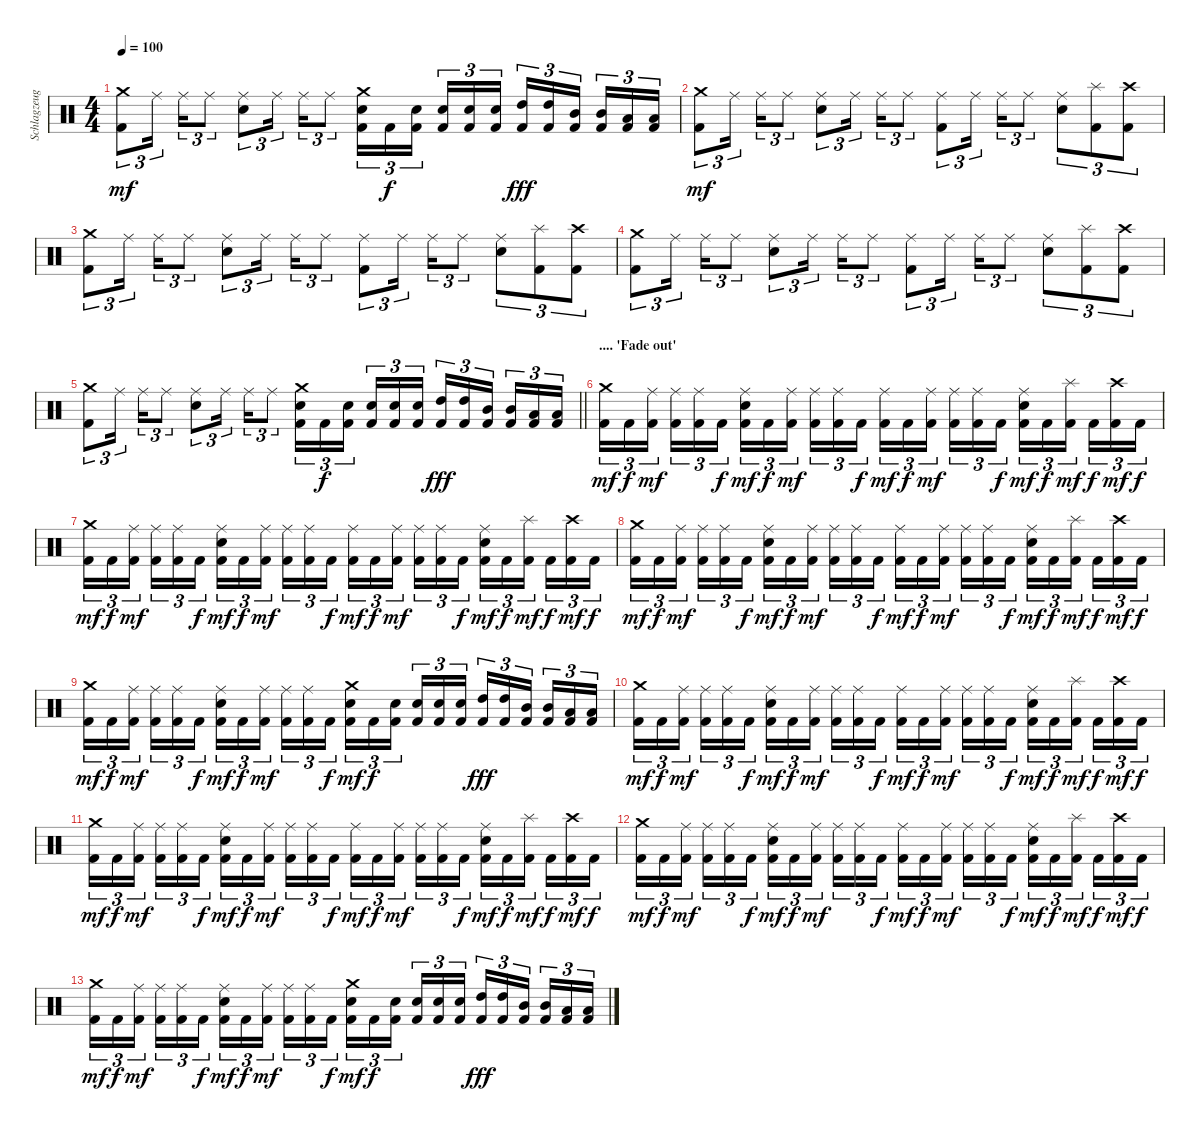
\track ("Schlagzeug" "Schlagzeug") {instrument percussion}
\staff {score}
\articulation defaults
\ts (4 4)
\tempo 100
\clef neutral
\ks c
("Crash medium (hit)" "Kick (hit) 2").8{tu (3 2) dy mf} "Ride (middle)".16{tu (3 2) beam splitsecondary} "Ride (middle)".16{tu (3 2)} "Ride (middle)".8{tu (3 2)} ("Ride (middle)" "Electric Snare (hit)").8{tu (3 2)} "Ride (middle)".16{tu (3 2) beam splitsecondary} "Ride (middle)".16{tu (3 2)} "Ride (middle)".8{tu (3 2)} ("Crash medium (hit)" "Electric Snare (hit)" "Kick (hit) 2").16{tu (3 2)} "Kick (hit) 2".16{tu (3 2) dy f} ("Electric Snare (hit)" "Kick (hit) 2").16{tu (3 2) beam splitsecondary} ("Electric Snare (hit)" "Kick (hit) 2").16{tu (3 2)} ("Electric Snare (hit)" "Kick (hit) 2").16{tu (3 2)} ("Electric Snare (hit)" "Kick (hit) 2").16{tu (3 2)} ("High Tom (hit)" "Kick (hit) 2").16{tu (3 2) dy fff} ("High Tom (hit)" "Kick (hit) 2").16{tu (3 2)} ("Mid Tom (hit)" "Kick (hit) 2").16{tu (3 2) beam splitsecondary} ("Mid Tom (hit)" "Kick (hit) 2").16{tu (3 2)} ("Low Tom (hit)" "Kick (hit) 2").16{tu (3 2)} ("Low Tom (hit)" "Kick (hit) 2").16{tu (3 2)} |
("Crash medium (hit)" "Kick (hit) 2").8{tu (3 2) dy mf} "Ride (middle)".16{tu (3 2) beam splitsecondary} "Ride (middle)".16{tu (3 2)} "Ride (middle)".8{tu (3 2)} ("Ride (middle)" "Electric Snare (hit)").8{tu (3 2)} "Ride (middle)".16{tu (3 2) beam splitsecondary} "Ride (middle)".16{tu (3 2)} "Ride (middle)".8{tu (3 2)} ("Ride (middle)" "Kick (hit) 2").8{tu (3 2)} "Ride (middle)".16{tu (3 2) beam splitsecondary} "Ride (middle)".16{tu (3 2)} "Ride (middle)".8{tu (3 2)} ("Ride (middle)" "Electric Snare (hit)").8{tu (3 2)} ("Splash (hit)" "Kick (hit) 2").8{tu (3 2)} ("Crash high (hit)" "Kick (hit) 2").8{tu (3 2)} |
("Crash medium (hit)" "Kick (hit) 2").8{tu (3 2)} "Ride (middle)".16{tu (3 2) beam splitsecondary} "Ride (middle)".16{tu (3 2)} "Ride (middle)".8{tu (3 2)} ("Ride (middle)" "Electric Snare (hit)").8{tu (3 2)} "Ride (middle)".16{tu (3 2) beam splitsecondary} "Ride (middle)".16{tu (3 2)} "Ride (middle)".8{tu (3 2)} ("Ride (middle)" "Kick (hit) 2").8{tu (3 2)} "Ride (middle)".16{tu (3 2) beam splitsecondary} "Ride (middle)".16{tu (3 2)} "Ride (middle)".8{tu (3 2)} ("Ride (middle)" "Electric Snare (hit)").8{tu (3 2)} ("Splash (hit)" "Kick (hit) 2").8{tu (3 2)} ("Crash high (hit)" "Kick (hit) 2").8{tu (3 2)} |
("Crash medium (hit)" "Kick (hit) 2").8{tu (3 2)} "Ride (middle)".16{tu (3 2) beam splitsecondary} "Ride (middle)".16{tu (3 2)} "Ride (middle)".8{tu (3 2)} ("Ride (middle)" "Electric Snare (hit)").8{tu (3 2)} "Ride (middle)".16{tu (3 2) beam splitsecondary} "Ride (middle)".16{tu (3 2)} "Ride (middle)".8{tu (3 2)} ("Ride (middle)" "Kick (hit) 2").8{tu (3 2)} "Ride (middle)".16{tu (3 2) beam splitsecondary} "Ride (middle)".16{tu (3 2)} "Ride (middle)".8{tu (3 2)} ("Ride (middle)" "Electric Snare (hit)").8{tu (3 2)} ("Splash (hit)" "Kick (hit) 2").8{tu (3 2)} ("Crash high (hit)" "Kick (hit) 2").8{tu (3 2)} |
\barLineRight lightlight
("Crash medium (hit)" "Kick (hit) 2").8{tu (3 2)} "Ride (middle)".16{tu (3 2) beam splitsecondary} "Ride (middle)".16{tu (3 2)} "Ride (middle)".8{tu (3 2)} ("Ride (middle)" "Electric Snare (hit)").8{tu (3 2)} "Ride (middle)".16{tu (3 2) beam splitsecondary} "Ride (middle)".16{tu (3 2)} "Ride (middle)".8{tu (3 2)} ("Crash medium (hit)" "Electric Snare (hit)" "Kick (hit) 2").16{tu (3 2)} "Kick (hit) 2".16{tu (3 2) dy f} ("Electric Snare (hit)" "Kick (hit) 2").16{tu (3 2) beam splitsecondary} ("Electric Snare (hit)" "Kick (hit) 2").16{tu (3 2)} ("Electric Snare (hit)" "Kick (hit) 2").16{tu (3 2)} ("Electric Snare (hit)" "Kick (hit) 2").16{tu (3 2)} ("High Tom (hit)" "Kick (hit) 2").16{tu (3 2) dy fff} ("High Tom (hit)" "Kick (hit) 2").16{tu (3 2)} ("Mid Tom (hit)" "Kick (hit) 2").16{tu (3 2) beam splitsecondary} ("Mid Tom (hit)" "Kick (hit) 2").16{tu (3 2)} ("Low Tom (hit)" "Kick (hit) 2").16{tu (3 2)} ("Low Tom (hit)" "Kick (hit) 2").16{tu (3 2)} |
\section ("" ".... 'Fade out'")
("Crash medium (hit)" "Kick (hit) 2").16{tu (3 2) dy mf} "Kick (hit) 2".16{tu (3 2) dy f} ("Ride (middle)" "Kick (hit) 2").16{tu (3 2) dy mf beam splitsecondary} ("Ride (middle)" "Kick (hit) 2").16{tu (3 2)} ("Ride (middle)" "Kick (hit) 2").16{tu (3 2)} "Kick (hit) 2".16{tu (3 2) dy f} ("Ride (middle)" "Electric Snare (hit)" "Kick (hit) 2").16{tu (3 2) dy mf} "Kick (hit) 2".16{tu (3 2) dy f} ("Ride (middle)" "Kick (hit) 2").16{tu (3 2) dy mf beam splitsecondary} ("Ride (middle)" "Kick (hit) 2").16{tu (3 2)} ("Ride (middle)" "Kick (hit) 2").16{tu (3 2)} "Kick (hit) 2".16{tu (3 2) dy f} ("Ride (middle)" "Kick (hit) 2").16{tu (3 2) dy mf} "Kick (hit) 2".16{tu (3 2) dy f} ("Ride (middle)" "Kick (hit) 2").16{tu (3 2) dy mf beam splitsecondary} ("Ride (middle)" "Kick (hit) 2").16{tu (3 2)} ("Ride (middle)" "Kick (hit) 2").16{tu (3 2)} "Kick (hit) 2".16{tu (3 2) dy f} ("Ride (middle)" "Electric Snare (hit)" "Kick (hit) 2").16{tu (3 2) dy mf} "Kick (hit) 2".16{tu (3 2) dy f} ("Splash (hit)" "Kick (hit) 2").16{tu (3 2) dy mf beam splitsecondary} "Kick (hit) 2".16{tu (3 2) dy f} ("Crash high (hit)" "Kick (hit) 2").16{tu (3 2) dy mf} "Kick (hit) 2".16{tu (3 2) dy f} |
("Crash medium (hit)" "Kick (hit) 2").16{tu (3 2) dy mf} "Kick (hit) 2".16{tu (3 2) dy f} ("Ride (middle)" "Kick (hit) 2").16{tu (3 2) dy mf beam splitsecondary} ("Ride (middle)" "Kick (hit) 2").16{tu (3 2)} ("Ride (middle)" "Kick (hit) 2").16{tu (3 2)} "Kick (hit) 2".16{tu (3 2) dy f} ("Ride (middle)" "Electric Snare (hit)" "Kick (hit) 2").16{tu (3 2) dy mf} "Kick (hit) 2".16{tu (3 2) dy f} ("Ride (middle)" "Kick (hit) 2").16{tu (3 2) dy mf beam splitsecondary} ("Ride (middle)" "Kick (hit) 2").16{tu (3 2)} ("Ride (middle)" "Kick (hit) 2").16{tu (3 2)} "Kick (hit) 2".16{tu (3 2) dy f} ("Ride (middle)" "Kick (hit) 2").16{tu (3 2) dy mf} "Kick (hit) 2".16{tu (3 2) dy f} ("Ride (middle)" "Kick (hit) 2").16{tu (3 2) dy mf beam splitsecondary} ("Ride (middle)" "Kick (hit) 2").16{tu (3 2)} ("Ride (middle)" "Kick (hit) 2").16{tu (3 2)} "Kick (hit) 2".16{tu (3 2) dy f} ("Ride (middle)" "Electric Snare (hit)" "Kick (hit) 2").16{tu (3 2) dy mf} "Kick (hit) 2".16{tu (3 2) dy f} ("Splash (hit)" "Kick (hit) 2").16{tu (3 2) dy mf beam splitsecondary} "Kick (hit) 2".16{tu (3 2) dy f} ("Crash high (hit)" "Kick (hit) 2").16{tu (3 2) dy mf} "Kick (hit) 2".16{tu (3 2) dy f} |
("Crash medium (hit)" "Kick (hit) 2").16{tu (3 2) dy mf} "Kick (hit) 2".16{tu (3 2) dy f} ("Ride (middle)" "Kick (hit) 2").16{tu (3 2) dy mf beam splitsecondary} ("Ride (middle)" "Kick (hit) 2").16{tu (3 2)} ("Ride (middle)" "Kick (hit) 2").16{tu (3 2)} "Kick (hit) 2".16{tu (3 2) dy f} ("Ride (middle)" "Electric Snare (hit)" "Kick (hit) 2").16{tu (3 2) dy mf} "Kick (hit) 2".16{tu (3 2) dy f} ("Ride (middle)" "Kick (hit) 2").16{tu (3 2) dy mf beam splitsecondary} ("Ride (middle)" "Kick (hit) 2").16{tu (3 2)} ("Ride (middle)" "Kick (hit) 2").16{tu (3 2)} "Kick (hit) 2".16{tu (3 2) dy f} ("Ride (middle)" "Kick (hit) 2").16{tu (3 2) dy mf} "Kick (hit) 2".16{tu (3 2) dy f} ("Ride (middle)" "Kick (hit) 2").16{tu (3 2) dy mf beam splitsecondary} ("Ride (middle)" "Kick (hit) 2").16{tu (3 2)} ("Ride (middle)" "Kick (hit) 2").16{tu (3 2)} "Kick (hit) 2".16{tu (3 2) dy f} ("Ride (middle)" "Electric Snare (hit)" "Kick (hit) 2").16{tu (3 2) dy mf} "Kick (hit) 2".16{tu (3 2) dy f} ("Splash (hit)" "Kick (hit) 2").16{tu (3 2) dy mf beam splitsecondary} "Kick (hit) 2".16{tu (3 2) dy f} ("Crash high (hit)" "Kick (hit) 2").16{tu (3 2) dy mf} "Kick (hit) 2".16{tu (3 2) dy f} |
("Crash medium (hit)" "Kick (hit) 2").16{tu (3 2) dy mf} "Kick (hit) 2".16{tu (3 2) dy f} ("Ride (middle)" "Kick (hit) 2").16{tu (3 2) dy mf beam splitsecondary} ("Ride (middle)" "Kick (hit) 2").16{tu (3 2)} ("Ride (middle)" "Kick (hit) 2").16{tu (3 2)} "Kick (hit) 2".16{tu (3 2) dy f} ("Ride (middle)" "Electric Snare (hit)" "Kick (hit) 2").16{tu (3 2) dy mf} "Kick (hit) 2".16{tu (3 2) dy f} ("Ride (middle)" "Kick (hit) 2").16{tu (3 2) dy mf beam splitsecondary} ("Ride (middle)" "Kick (hit) 2").16{tu (3 2)} ("Ride (middle)" "Kick (hit) 2").16{tu (3 2)} "Kick (hit) 2".16{tu (3 2) dy f} ("Crash medium (hit)" "Electric Snare (hit)" "Kick (hit) 2").16{tu (3 2) dy mf} "Kick (hit) 2".16{tu (3 2) dy f} ("Electric Snare (hit)" "Kick (hit) 2").16{tu (3 2) beam splitsecondary} ("Electric Snare (hit)" "Kick (hit) 2").16{tu (3 2)} ("Electric Snare (hit)" "Kick (hit) 2").16{tu (3 2)} ("Electric Snare (hit)" "Kick (hit) 2").16{tu (3 2)} ("High Tom (hit)" "Kick (hit) 2").16{tu (3 2) dy fff} ("High Tom (hit)" "Kick (hit) 2").16{tu (3 2)} ("Mid Tom (hit)" "Kick (hit) 2").16{tu (3 2) beam splitsecondary} ("Mid Tom (hit)" "Kick (hit) 2").16{tu (3 2)} ("Low Tom (hit)" "Kick (hit) 2").16{tu (3 2)} ("Low Tom (hit)" "Kick (hit) 2").16{tu (3 2)} |
("Crash medium (hit)" "Kick (hit) 2").16{tu (3 2) dy mf} "Kick (hit) 2".16{tu (3 2) dy f} ("Ride (middle)" "Kick (hit) 2").16{tu (3 2) dy mf beam splitsecondary} ("Ride (middle)" "Kick (hit) 2").16{tu (3 2)} ("Ride (middle)" "Kick (hit) 2").16{tu (3 2)} "Kick (hit) 2".16{tu (3 2) dy f} ("Ride (middle)" "Electric Snare (hit)" "Kick (hit) 2").16{tu (3 2) dy mf} "Kick (hit) 2".16{tu (3 2) dy f} ("Ride (middle)" "Kick (hit) 2").16{tu (3 2) dy mf beam splitsecondary} ("Ride (middle)" "Kick (hit) 2").16{tu (3 2)} ("Ride (middle)" "Kick (hit) 2").16{tu (3 2)} "Kick (hit) 2".16{tu (3 2) dy f} ("Ride (middle)" "Kick (hit) 2").16{tu (3 2) dy mf} "Kick (hit) 2".16{tu (3 2) dy f} ("Ride (middle)" "Kick (hit) 2").16{tu (3 2) dy mf beam splitsecondary} ("Ride (middle)" "Kick (hit) 2").16{tu (3 2)} ("Ride (middle)" "Kick (hit) 2").16{tu (3 2)} "Kick (hit) 2".16{tu (3 2) dy f} ("Ride (middle)" "Electric Snare (hit)" "Kick (hit) 2").16{tu (3 2) dy mf} "Kick (hit) 2".16{tu (3 2) dy f} ("Splash (hit)" "Kick (hit) 2").16{tu (3 2) dy mf beam splitsecondary} "Kick (hit) 2".16{tu (3 2) dy f} ("Crash high (hit)" "Kick (hit) 2").16{tu (3 2) dy mf} "Kick (hit) 2".16{tu (3 2) dy f} |
("Crash medium (hit)" "Kick (hit) 2").16{tu (3 2) dy mf} "Kick (hit) 2".16{tu (3 2) dy f} ("Ride (middle)" "Kick (hit) 2").16{tu (3 2) dy mf beam splitsecondary} ("Ride (middle)" "Kick (hit) 2").16{tu (3 2)} ("Ride (middle)" "Kick (hit) 2").16{tu (3 2)} "Kick (hit) 2".16{tu (3 2) dy f} ("Ride (middle)" "Electric Snare (hit)" "Kick (hit) 2").16{tu (3 2) dy mf} "Kick (hit) 2".16{tu (3 2) dy f} ("Ride (middle)" "Kick (hit) 2").16{tu (3 2) dy mf beam splitsecondary} ("Ride (middle)" "Kick (hit) 2").16{tu (3 2)} ("Ride (middle)" "Kick (hit) 2").16{tu (3 2)} "Kick (hit) 2".16{tu (3 2) dy f} ("Ride (middle)" "Kick (hit) 2").16{tu (3 2) dy mf} "Kick (hit) 2".16{tu (3 2) dy f} ("Ride (middle)" "Kick (hit) 2").16{tu (3 2) dy mf beam splitsecondary} ("Ride (middle)" "Kick (hit) 2").16{tu (3 2)} ("Ride (middle)" "Kick (hit) 2").16{tu (3 2)} "Kick (hit) 2".16{tu (3 2) dy f} ("Ride (middle)" "Electric Snare (hit)" "Kick (hit) 2").16{tu (3 2) dy mf} "Kick (hit) 2".16{tu (3 2) dy f} ("Splash (hit)" "Kick (hit) 2").16{tu (3 2) dy mf beam splitsecondary} "Kick (hit) 2".16{tu (3 2) dy f} ("Crash high (hit)" "Kick (hit) 2").16{tu (3 2) dy mf} "Kick (hit) 2".16{tu (3 2) dy f} |
("Crash medium (hit)" "Kick (hit) 2").16{tu (3 2) dy mf} "Kick (hit) 2".16{tu (3 2) dy f} ("Ride (middle)" "Kick (hit) 2").16{tu (3 2) dy mf beam splitsecondary} ("Ride (middle)" "Kick (hit) 2").16{tu (3 2)} ("Ride (middle)" "Kick (hit) 2").16{tu (3 2)} "Kick (hit) 2".16{tu (3 2) dy f} ("Ride (middle)" "Electric Snare (hit)" "Kick (hit) 2").16{tu (3 2) dy mf} "Kick (hit) 2".16{tu (3 2) dy f} ("Ride (middle)" "Kick (hit) 2").16{tu (3 2) dy mf beam splitsecondary} ("Ride (middle)" "Kick (hit) 2").16{tu (3 2)} ("Ride (middle)" "Kick (hit) 2").16{tu (3 2)} "Kick (hit) 2".16{tu (3 2) dy f} ("Ride (middle)" "Kick (hit) 2").16{tu (3 2) dy mf} "Kick (hit) 2".16{tu (3 2) dy f} ("Ride (middle)" "Kick (hit) 2").16{tu (3 2) dy mf beam splitsecondary} ("Ride (middle)" "Kick (hit) 2").16{tu (3 2)} ("Ride (middle)" "Kick (hit) 2").16{tu (3 2)} "Kick (hit) 2".16{tu (3 2) dy f} ("Ride (middle)" "Electric Snare (hit)" "Kick (hit) 2").16{tu (3 2) dy mf} "Kick (hit) 2".16{tu (3 2) dy f} ("Splash (hit)" "Kick (hit) 2").16{tu (3 2) dy mf beam splitsecondary} "Kick (hit) 2".16{tu (3 2) dy f} ("Crash high (hit)" "Kick (hit) 2").16{tu (3 2) dy mf} "Kick (hit) 2".16{tu (3 2) dy f} |
("Crash medium (hit)" "Kick (hit) 2").16{tu (3 2) dy mf} "Kick (hit) 2".16{tu (3 2) dy f} ("Ride (middle)" "Kick (hit) 2").16{tu (3 2) dy mf beam splitsecondary} ("Ride (middle)" "Kick (hit) 2").16{tu (3 2)} ("Ride (middle)" "Kick (hit) 2").16{tu (3 2)} "Kick (hit) 2".16{tu (3 2) dy f} ("Ride (middle)" "Electric Snare (hit)" "Kick (hit) 2").16{tu (3 2) dy mf} "Kick (hit) 2".16{tu (3 2) dy f} ("Ride (middle)" "Kick (hit) 2").16{tu (3 2) dy mf beam splitsecondary} ("Ride (middle)" "Kick (hit) 2").16{tu (3 2)} ("Ride (middle)" "Kick (hit) 2").16{tu (3 2)} "Kick (hit) 2".16{tu (3 2) dy f} ("Crash medium (hit)" "Electric Snare (hit)" "Kick (hit) 2").16{tu (3 2) dy mf} "Kick (hit) 2".16{tu (3 2) dy f} ("Electric Snare (hit)" "Kick (hit) 2").16{tu (3 2) beam splitsecondary} ("Electric Snare (hit)" "Kick (hit) 2").16{tu (3 2)} ("Electric Snare (hit)" "Kick (hit) 2").16{tu (3 2)} ("Electric Snare (hit)" "Kick (hit) 2").16{tu (3 2)} ("High Tom (hit)" "Kick (hit) 2").16{tu (3 2) dy fff} ("High Tom (hit)" "Kick (hit) 2").16{tu (3 2)} ("Mid Tom (hit)" "Kick (hit) 2").16{tu (3 2) beam splitsecondary} ("Mid Tom (hit)" "Kick (hit) 2").16{tu (3 2)} ("Low Tom (hit)" "Kick (hit) 2").16{tu (3 2)} ("Low Tom (hit)" "Kick (hit) 2").16{tu (3 2)}
